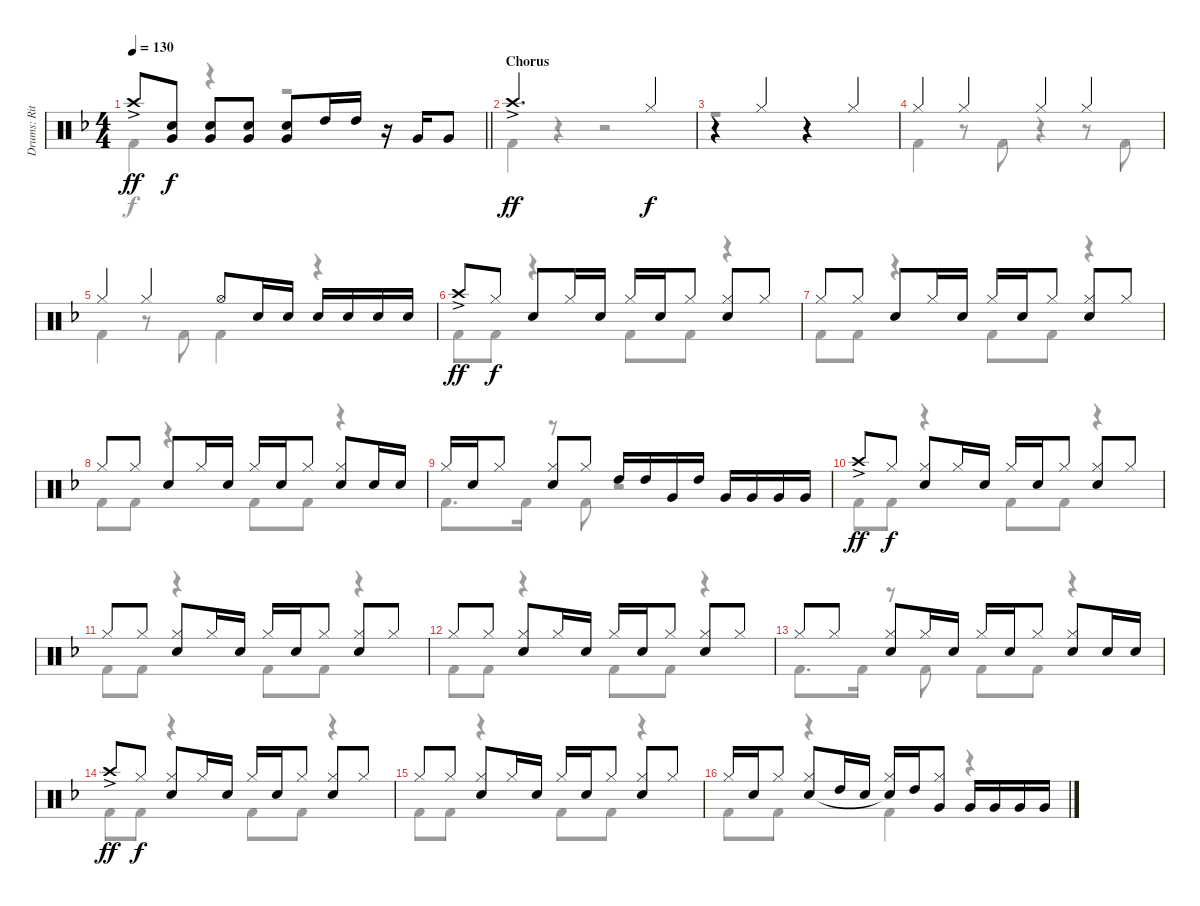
\track ("Drums: Ritsu Tianaka" "Drums: Rit") {instrument percussion}
\staff {score}
\articulation defaults
\voice
\ts (4 4)
\tempo 130
\clef neutral
\barLineRight lightlight
\ks f "Crash high (hit)"{ac}.8{dy ff}
("Electric Snare (hit)" "Very Low Tom (hit)").8{dy f} ("Electric Snare (hit)" "Very Low Tom (hit)").8 ("Electric Snare (hit)" "Very Low Tom (hit)").8 ("Electric Snare (hit)" "Very Low Tom (hit)").8 "High Tom (hit)".16 "High Tom (hit)".16 r.16 "Very Low Tom (hit)".16 "Very Low Tom (hit)".8 |
\section ("" "Chorus")
"Crash high (hit)"{ac}.2{d dy ff} "Hi-Hat (closed)".4{dy f} |
r.4 "Hi-Hat (closed)".4 r.4 "Hi-Hat (closed)".4 |
"Hi-Hat (closed)".4 "Hi-Hat (closed)".4 "Hi-Hat (closed)".4 "Hi-Hat (closed)".4 |
"Hi-Hat (closed)".4 "Hi-Hat (closed)".4 "Hi-Hat (open)".8 "Electric Snare (hit)".16 "Electric Snare (hit)".16 "Electric Snare (hit)".16 "Electric Snare (hit)".16 "Electric Snare (hit)".16 "Electric Snare (hit)".16 |
"Crash high (hit)"{ac}.8{dy ff} "Hi-Hat (closed)".8{dy f} "Electric Snare (hit)".8 "Hi-Hat (closed)".16 "Electric Snare (hit)".16 "Hi-Hat (closed)".16 "Electric Snare (hit)".16 "Hi-Hat (closed)".8 ("Hi-Hat (closed)" "Electric Snare (hit)").8 "Hi-Hat (closed)".8 |
"Hi-Hat (closed)".8 "Hi-Hat (closed)".8 "Electric Snare (hit)".8 "Hi-Hat (closed)".16 "Electric Snare (hit)".16 "Hi-Hat (closed)".16 "Electric Snare (hit)".16 "Hi-Hat (closed)".8 ("Hi-Hat (closed)" "Electric Snare (hit)").8 "Hi-Hat (closed)".8 |
"Hi-Hat (closed)".8 "Hi-Hat (closed)".8 "Electric Snare (hit)".8 "Hi-Hat (closed)".16 "Electric Snare (hit)".16 "Hi-Hat (closed)".16 "Electric Snare (hit)".16 "Hi-Hat (closed)".8 ("Hi-Hat (closed)" "Electric Snare (hit)").8 "Electric Snare (hit)".16 "Electric Snare (hit)".16 |
"Hi-Hat (closed)".16 "Electric Snare (hit)".16 "Hi-Hat (closed)".8 ("Hi-Hat (closed)" "Electric Snare (hit)").8 "Hi-Hat (closed)".8 "High Tom (hit)".16 "High Tom (hit)".16 "Very Low Tom (hit)".16 "High Tom (hit)".16 "Very Low Tom (hit)".16 "Very Low Tom (hit)".16 "Very Low Tom (hit)".16 "Very Low Tom (hit)".16 |
"Crash high (hit)"{ac}.8{dy ff} "Hi-Hat (closed)".8{dy f} ("Hi-Hat (closed)" "Electric Snare (hit)").8 "Hi-Hat (closed)".16 "Electric Snare (hit)".16 "Hi-Hat (closed)".16 "Electric Snare (hit)".16 "Hi-Hat (closed)".8 ("Hi-Hat (closed)" "Electric Snare (hit)").8 "Hi-Hat (closed)".8 |
"Hi-Hat (closed)".8 "Hi-Hat (closed)".8 ("Hi-Hat (closed)" "Electric Snare (hit)").8 "Hi-Hat (closed)".16 "Electric Snare (hit)".16 "Hi-Hat (closed)".16 "Electric Snare (hit)".16 "Hi-Hat (closed)".8 ("Hi-Hat (closed)" "Electric Snare (hit)").8 "Hi-Hat (closed)".8 |
"Hi-Hat (closed)".8 "Hi-Hat (closed)".8 ("Hi-Hat (closed)" "Electric Snare (hit)").8 "Hi-Hat (closed)".16 "Electric Snare (hit)".16 "Hi-Hat (closed)".16 "Electric Snare (hit)".16 "Hi-Hat (closed)".8 ("Hi-Hat (closed)" "Electric Snare (hit)").8 "Hi-Hat (closed)".8 |
"Hi-Hat (closed)".8 "Hi-Hat (closed)".8 ("Hi-Hat (closed)" "Electric Snare (hit)").8 "Hi-Hat (closed)".16 "Electric Snare (hit)".16 "Hi-Hat (closed)".16 "Electric Snare (hit)".16 "Hi-Hat (closed)".8 ("Hi-Hat (closed)" "Electric Snare (hit)").8 "Electric Snare (hit)".16 "Electric Snare (hit)".16 |
"Crash high (hit)"{ac}.8{dy ff} "Hi-Hat (closed)".8{dy f} ("Hi-Hat (closed)" "Electric Snare (hit)").8 "Hi-Hat (closed)".16 "Electric Snare (hit)".16 "Hi-Hat (closed)".16 "Electric Snare (hit)".16 "Hi-Hat (closed)".8 ("Hi-Hat (closed)" "Electric Snare (hit)").8 "Hi-Hat (closed)".8 |
"Hi-Hat (closed)".8 "Hi-Hat (closed)".8 ("Hi-Hat (closed)" "Electric Snare (hit)").8 "Hi-Hat (closed)".16 "Electric Snare (hit)".16 "Hi-Hat (closed)".16 "Electric Snare (hit)".16 "Hi-Hat (closed)".8 ("Hi-Hat (closed)" "Electric Snare (hit)").8 "Hi-Hat (closed)".8 |
"Hi-Hat (closed)".16 "Electric Snare (hit)".16 "Hi-Hat (closed)".8 ("Hi-Hat (closed)" "Electric Snare (hit)").8 "High Tom (hit)".16 "Electric Snare (hit)".16 ("Hi-Hat (closed)" "Electric Snare (hit)"{t}).16 "High Tom (hit)".16 ("Hi-Hat (closed)" "Very Low Tom (hit)").8 "Very Low Tom (hit)".16 "Very Low Tom (hit)".16 "Very Low Tom (hit)".16 "Very Low Tom (hit)".16
\voice
\clef neutral
\ottava regular
\simile none
\barLineRight lightlight
\ks f "Kick (hit) 2".4{dy f}
r.4 r.2 |
"Kick (hit) 2".4 r.4 r.2 |
r.1 |
"Kick (hit) 2".4 r.8 "Kick (hit) 2".8 r.4 r.8 "Kick (hit) 2".8 |
"Kick (hit) 2".4 r.8 "Kick (hit) 2".8 "Kick (hit) 2".4 r.4 |
"Kick (hit) 2".8 "Kick (hit) 2".8 r.4 "Kick (hit) 2".8 "Kick (hit) 2".8 r.4 |
"Kick (hit) 2".8 "Kick (hit) 2".8 r.4 "Kick (hit) 2".8 "Kick (hit) 2".8 r.4 |
"Kick (hit) 2".8 "Kick (hit) 2".8 r.4 "Kick (hit) 2".8 "Kick (hit) 2".8 r.4 |
"Kick (hit) 2".8{d} "Kick (hit) 2".16 r.8 "Kick (hit) 2".8 r.2 |
"Kick (hit) 2".8 "Kick (hit) 2".8 r.4 "Kick (hit) 2".8 "Kick (hit) 2".8 r.4 |
"Kick (hit) 2".8 "Kick (hit) 2".8 r.4 "Kick (hit) 2".8 "Kick (hit) 2".8 r.4 |
"Kick (hit) 2".8 "Kick (hit) 2".8 r.4 "Kick (hit) 2".8 "Kick (hit) 2".8 r.4 |
"Kick (hit) 2".8{d} "Kick (hit) 2".16 r.8 "Kick (hit) 2".8 "Kick (hit) 2".8 "Kick (hit) 2".8 r.4 |
"Kick (hit) 2".8 "Kick (hit) 2".8 r.4 "Kick (hit) 2".8 "Kick (hit) 2".8 r.4 |
"Kick (hit) 2".8 "Kick (hit) 2".8 r.4 "Kick (hit) 2".8 "Kick (hit) 2".8 r.4 |
"Kick (hit) 2".8 "Kick (hit) 2".8 r.4 "Kick (hit) 2".4 r.4
